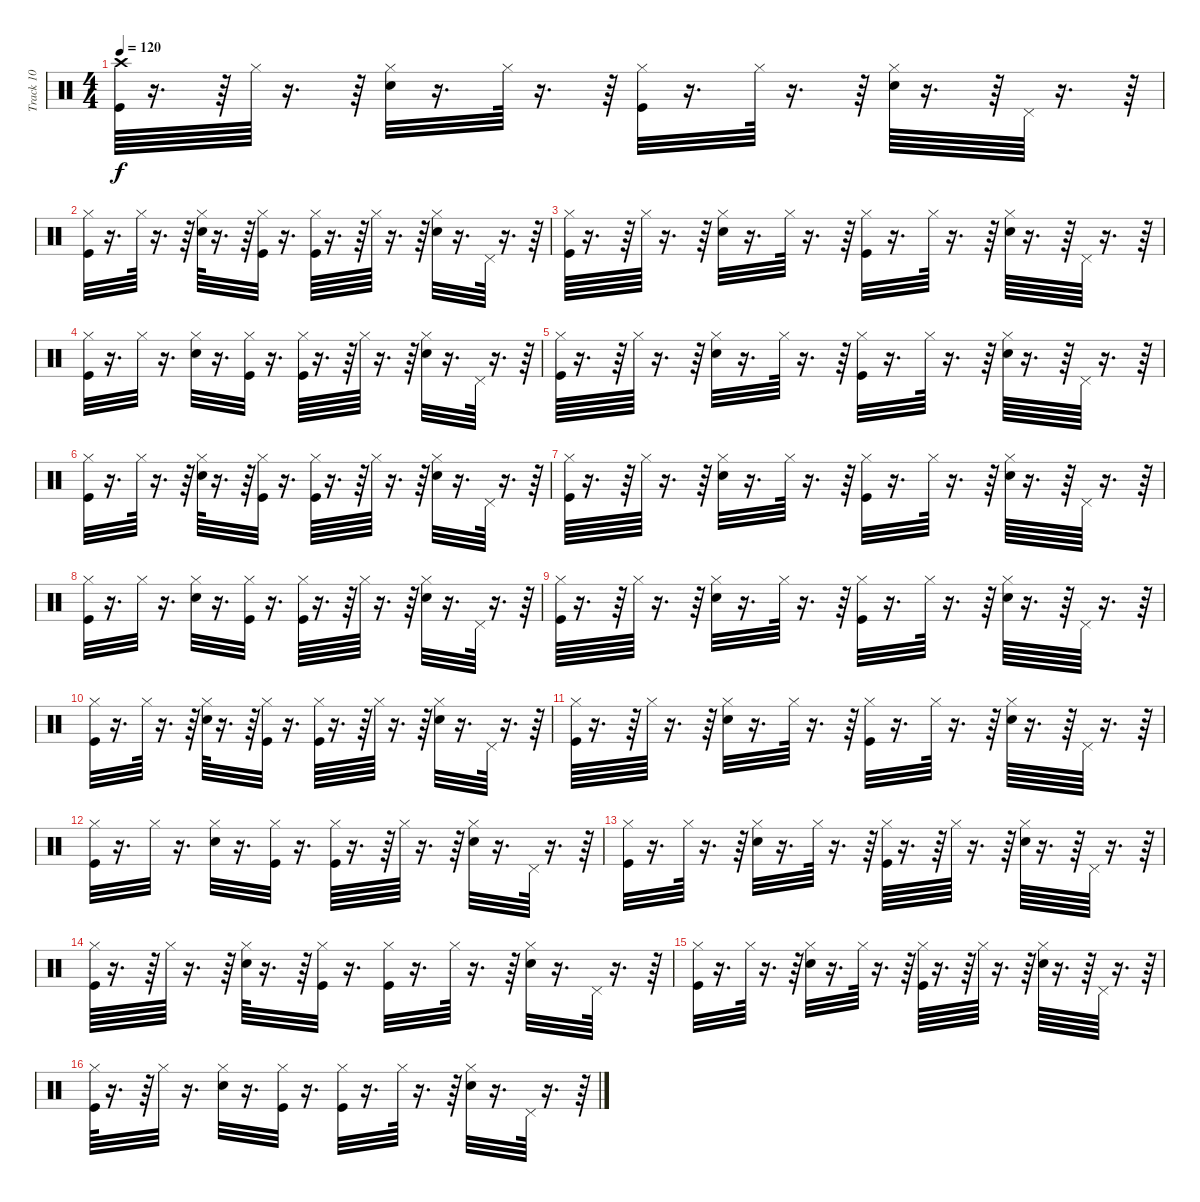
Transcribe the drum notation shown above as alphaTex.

\track ("Track 10" "Track 10") {instrument percussion}
\staff {score}
\articulation defaults
\ts (4 4)
\tempo 120
\clef neutral
\ks c
("Kick (hit)" "Crash high (hit)").64{dy f} r.16{d} r.64 "Hi-Hat (closed)".64 r.16{d} r.64 ("Snare (hit) 2" "Hi-Hat (closed)").32 r.16{d} "Hi-Hat (closed)".64 r.16{d} r.64 ("Kick (hit)" "Hi-Hat (closed)").32 r.16{d} "Hi-Hat (closed)".64 r.16{d} r.64 ("Snare (hit) 2" "Hi-Hat (closed)").64 r.16{d} r.64 "Pedal Hi-Hat (hit)".64 r.16{d} r.64 |
("Kick (hit)" "Hi-Hat (closed)").32 r.16{d} "Hi-Hat (closed)".64 r.16{d} r.64 ("Snare (hit) 2" "Hi-Hat (closed)").64 r.16{d} r.64 ("Kick (hit)" "Hi-Hat (closed)").32 r.16{d} ("Kick (hit)" "Hi-Hat (closed)").64 r.16{d} r.64 "Hi-Hat (closed)".64 r.16{d} r.64 ("Snare (hit) 2" "Hi-Hat (closed)").32 r.16{d} "Pedal Hi-Hat (hit)".64 r.16{d} r.64 |
("Kick (hit)" "Hi-Hat (closed)").64 r.16{d} r.64 "Hi-Hat (closed)".64 r.16{d} r.64 ("Snare (hit) 2" "Hi-Hat (closed)").32 r.16{d} "Hi-Hat (closed)".64 r.16{d} r.64 ("Kick (hit)" "Hi-Hat (closed)").32 r.16{d} "Hi-Hat (closed)".64 r.16{d} r.64 ("Snare (hit) 2" "Hi-Hat (closed)").64 r.16{d} r.64 "Pedal Hi-Hat (hit)".64 r.16{d} r.64 |
("Kick (hit)" "Hi-Hat (closed)").32 r.16{d} "Hi-Hat (closed)".32 r.16{d} ("Snare (hit) 2" "Hi-Hat (closed)").32 r.16{d} ("Kick (hit)" "Hi-Hat (closed)").32 r.16{d} ("Kick (hit)" "Hi-Hat (closed)").64 r.16{d} r.64 "Hi-Hat (closed)".64 r.16{d} r.64 ("Snare (hit) 2" "Hi-Hat (closed)").32 r.16{d} "Pedal Hi-Hat (hit)".64 r.16{d} r.64 |
("Kick (hit)" "Hi-Hat (closed)").64 r.16{d} r.64 "Hi-Hat (closed)".64 r.16{d} r.64 ("Snare (hit) 2" "Hi-Hat (closed)").32 r.16{d} "Hi-Hat (closed)".64 r.16{d} r.64 ("Kick (hit)" "Hi-Hat (closed)").32 r.16{d} "Hi-Hat (closed)".64 r.16{d} r.64 ("Snare (hit) 2" "Hi-Hat (closed)").64 r.16{d} r.64 "Pedal Hi-Hat (hit)".64 r.16{d} r.64 |
("Kick (hit)" "Hi-Hat (closed)").32 r.16{d} "Hi-Hat (closed)".64 r.16{d} r.64 ("Snare (hit) 2" "Hi-Hat (closed)").64 r.16{d} r.64 ("Kick (hit)" "Hi-Hat (closed)").32 r.16{d} ("Kick (hit)" "Hi-Hat (closed)").64 r.16{d} r.64 "Hi-Hat (closed)".64 r.16{d} r.64 ("Snare (hit) 2" "Hi-Hat (closed)").32 r.16{d} "Pedal Hi-Hat (hit)".64 r.16{d} r.64 |
("Kick (hit)" "Hi-Hat (closed)").64 r.16{d} r.64 "Hi-Hat (closed)".64 r.16{d} r.64 ("Snare (hit) 2" "Hi-Hat (closed)").32 r.16{d} "Hi-Hat (closed)".64 r.16{d} r.64 ("Kick (hit)" "Hi-Hat (closed)").32 r.16{d} "Hi-Hat (closed)".64 r.16{d} r.64 ("Snare (hit) 2" "Hi-Hat (closed)").64 r.16{d} r.64 "Pedal Hi-Hat (hit)".64 r.16{d} r.64 |
("Kick (hit)" "Hi-Hat (closed)").32 r.16{d} "Hi-Hat (closed)".32 r.16{d} ("Snare (hit) 2" "Hi-Hat (closed)").32 r.16{d} ("Kick (hit)" "Hi-Hat (closed)").32 r.16{d} ("Kick (hit)" "Hi-Hat (closed)").64 r.16{d} r.64 "Hi-Hat (closed)".64 r.16{d} r.64 ("Snare (hit) 2" "Hi-Hat (closed)").32 r.16{d} "Pedal Hi-Hat (hit)".64 r.16{d} r.64 |
("Kick (hit)" "Hi-Hat (closed)").64 r.16{d} r.64 "Hi-Hat (closed)".64 r.16{d} r.64 ("Snare (hit) 2" "Hi-Hat (closed)").32 r.16{d} "Hi-Hat (closed)".64 r.16{d} r.64 ("Kick (hit)" "Hi-Hat (closed)").32 r.16{d} "Hi-Hat (closed)".64 r.16{d} r.64 ("Snare (hit) 2" "Hi-Hat (closed)").64 r.16{d} r.64 "Pedal Hi-Hat (hit)".64 r.16{d} r.64 |
("Kick (hit)" "Hi-Hat (closed)").32 r.16{d} "Hi-Hat (closed)".64 r.16{d} r.64 ("Snare (hit) 2" "Hi-Hat (closed)").64 r.16{d} r.64 ("Kick (hit)" "Hi-Hat (closed)").32 r.16{d} ("Kick (hit)" "Hi-Hat (closed)").64 r.16{d} r.64 "Hi-Hat (closed)".64 r.16{d} r.64 ("Snare (hit) 2" "Hi-Hat (closed)").32 r.16{d} "Pedal Hi-Hat (hit)".64 r.16{d} r.64 |
("Kick (hit)" "Hi-Hat (closed)").64 r.16{d} r.64 "Hi-Hat (closed)".64 r.16{d} r.64 ("Snare (hit) 2" "Hi-Hat (closed)").32 r.16{d} "Hi-Hat (closed)".64 r.16{d} r.64 ("Kick (hit)" "Hi-Hat (closed)").32 r.16{d} "Hi-Hat (closed)".64 r.16{d} r.64 ("Snare (hit) 2" "Hi-Hat (closed)").64 r.16{d} r.64 "Pedal Hi-Hat (hit)".64 r.16{d} r.64 |
("Kick (hit)" "Hi-Hat (closed)").32 r.16{d} "Hi-Hat (closed)".32 r.16{d} ("Snare (hit) 2" "Hi-Hat (closed)").32 r.16{d} ("Kick (hit)" "Hi-Hat (closed)").32 r.16{d} ("Kick (hit)" "Hi-Hat (closed)").64 r.16{d} r.64 "Hi-Hat (closed)".64 r.16{d} r.64 ("Snare (hit) 2" "Hi-Hat (closed)").32 r.16{d} "Pedal Hi-Hat (hit)".64 r.16{d} r.64 |
("Kick (hit)" "Hi-Hat (closed)").32 r.16{d} "Hi-Hat (closed)".64 r.16{d} r.64 ("Snare (hit) 2" "Hi-Hat (closed)").32 r.16{d} "Hi-Hat (closed)".64 r.16{d} r.64 ("Kick (hit)" "Hi-Hat (closed)").64 r.16{d} r.64 "Hi-Hat (closed)".64 r.16{d} r.64 ("Snare (hit) 2" "Hi-Hat (closed)").64 r.16{d} r.64 "Pedal Hi-Hat (hit)".64 r.16{d} r.64 |
("Kick (hit)" "Hi-Hat (closed)").64 r.16{d} r.64 "Hi-Hat (closed)".64 r.16{d} r.64 ("Snare (hit) 2" "Hi-Hat (closed)").64 r.16{d} r.64 ("Kick (hit)" "Hi-Hat (closed)").32 r.16{d} ("Kick (hit)" "Hi-Hat (closed)").32 r.16{d} "Hi-Hat (closed)".64 r.16{d} r.64 ("Snare (hit) 2" "Hi-Hat (closed)").32 r.16{d} "Pedal Hi-Hat (hit)".64 r.16{d} r.64 |
("Kick (hit)" "Hi-Hat (closed)").32 r.16{d} "Hi-Hat (closed)".64 r.16{d} r.64 ("Snare (hit) 2" "Hi-Hat (closed)").32 r.16{d} "Hi-Hat (closed)".64 r.16{d} r.64 ("Kick (hit)" "Hi-Hat (closed)").64 r.16{d} r.64 "Hi-Hat (closed)".64 r.16{d} r.64 ("Snare (hit) 2" "Hi-Hat (closed)").64 r.16{d} r.64 "Pedal Hi-Hat (hit)".64 r.16{d} r.64 |
("Kick (hit)" "Hi-Hat (closed)").64 r.16{d} r.64 "Hi-Hat (closed)".32 r.16{d} ("Snare (hit) 2" "Hi-Hat (closed)").32 r.16{d} ("Kick (hit)" "Hi-Hat (closed)").32 r.16{d} ("Kick (hit)" "Hi-Hat (closed)").32 r.16{d} "Hi-Hat (closed)".64 r.16{d} r.64 ("Snare (hit) 2" "Hi-Hat (closed)").32 r.16{d} "Pedal Hi-Hat (hit)".64 r.16{d} r.64
